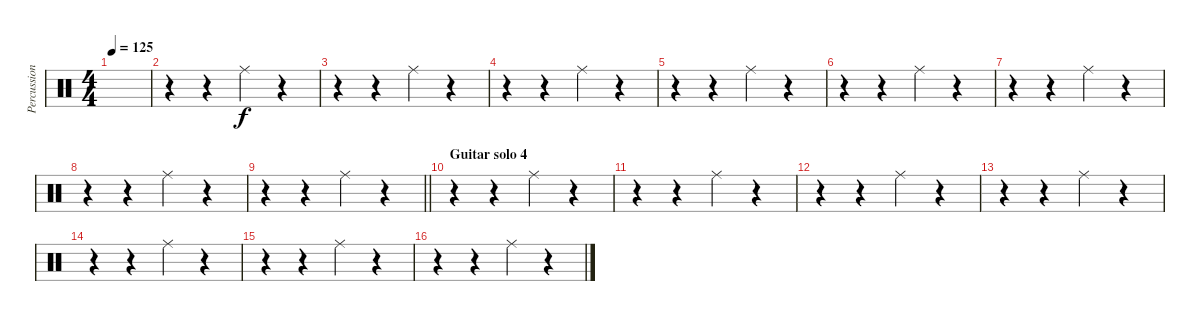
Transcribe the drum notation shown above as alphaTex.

\track ("Percussion" "Percussion") {instrument percussion}
\staff {score}
\articulation defaults
\ts (4 4)
\tempo 125
\clef neutral
\ks c
|
r.4 r.4 "Ride (middle)".4 r.4 |
r.4 r.4 "Ride (middle)".4 r.4 |
r.4 r.4 "Ride (middle)".4 r.4 |
r.4 r.4 "Ride (middle)".4 r.4 |
r.4 r.4 "Ride (middle)".4 r.4 |
r.4 r.4 "Ride (middle)".4 r.4 |
r.4 r.4 "Ride (middle)".4 r.4 |
\barLineRight lightlight
r.4 r.4 "Ride (middle)".4 r.4 |
\section ("" "Guitar solo 4")
r.4 r.4 "Ride (middle)".4 r.4 |
r.4 r.4 "Ride (middle)".4 r.4 |
r.4 r.4 "Ride (middle)".4 r.4 |
r.4 r.4 "Ride (middle)".4 r.4 |
r.4 r.4 "Ride (middle)".4 r.4 |
r.4 r.4 "Ride (middle)".4 r.4 |
r.4 r.4 "Ride (middle)".4 r.4
